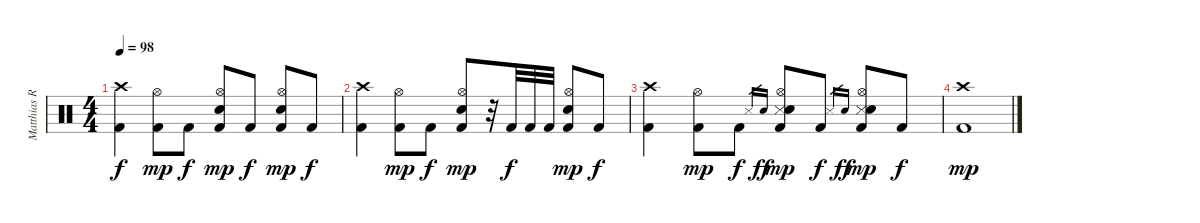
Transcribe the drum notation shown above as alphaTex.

\track ("Matthias R." "Matthias R") {instrument percussion}
\staff {score}
\articulation defaults
\ts (4 4)
\tempo 98
\clef neutral
\ks c
("Kick (hit) 2" "Crash high (hit)").4{dy f} ("Kick (hit) 2" "Hi-Hat (open)").8{dy mp} "Kick (hit) 2".8{dy f} ("Kick (hit) 2" "Electric Snare (hit)" "Hi-Hat (open)").8{dy mp} "Kick (hit) 2".8{dy f} ("Kick (hit) 2" "Electric Snare (hit)" "Hi-Hat (open)").8{dy mp} "Kick (hit) 2".8{dy f} |
("Kick (hit) 2" "Crash high (hit)").4 ("Kick (hit) 2" "Hi-Hat (open)").8{dy mp} "Kick (hit) 2".8{dy f} ("Kick (hit) 2" "Electric Snare (hit)" "Hi-Hat (open)").8{dy mp} r.32 "Kick (hit) 2".32{dy f} "Kick (hit) 2".32 "Kick (hit) 2".32 ("Kick (hit) 2" "Electric Snare (hit)" "Hi-Hat (open)").8{dy mp} "Kick (hit) 2".8{dy f} |
("Kick (hit) 2" "Crash high (hit)").4 ("Kick (hit) 2" "Hi-Hat (open)").8{dy mp} "Kick (hit) 2".8{dy f} "Metronome (hit)".16{gr} "Electric Snare (hit)".16{gr dy ff} ("Kick (hit) 2" "Metronome (hit)" "Electric Snare (hit)" "Hi-Hat (open)").8{dy mp} "Kick (hit) 2".8{dy f} "Metronome (hit)".16{gr} "Electric Snare (hit)".16{gr dy ff} ("Kick (hit) 2" "Metronome (hit)" "Electric Snare (hit)" "Hi-Hat (open)").8{dy mp} "Kick (hit) 2".8{dy f} |
("Kick (hit) 2" "Crash high (hit)").1{dy mp}
